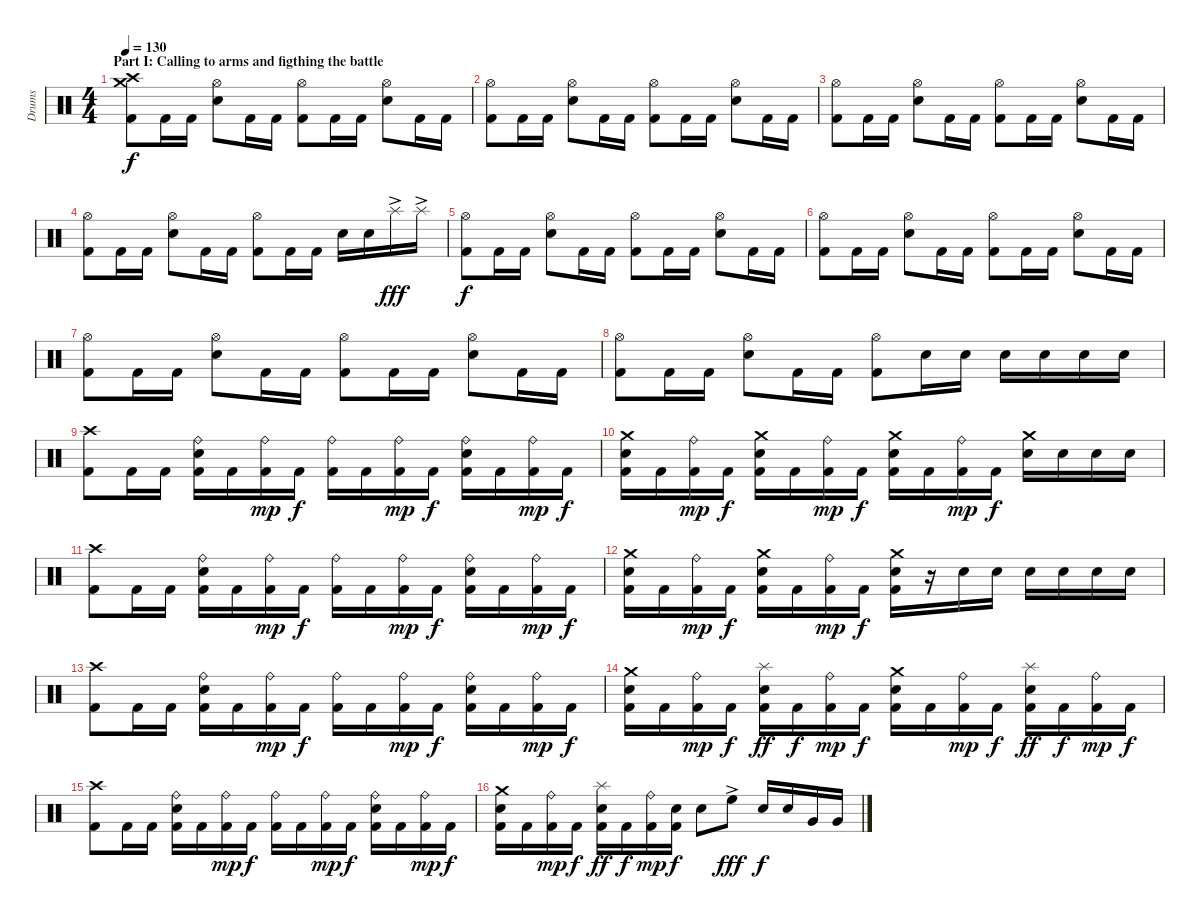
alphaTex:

\track ("Drums" "Drums") {instrument percussion}
\staff {score}
\articulation defaults
\ts (4 4)
\section ("" "Part I: Calling to arms and figthing the battle")
\tempo 130
\clef neutral
\ks c
("Crash high (hit)" "Crash medium (hit)" "Kick (hit) 2").8{dy f} "Kick (hit) 2".16 "Kick (hit) 2".16 ("Hi-Hat (open)" "Snare (hit) 2").8 "Kick (hit) 2".16 "Kick (hit) 2".16 ("Hi-Hat (open)" "Kick (hit) 2").8 "Kick (hit) 2".16 "Kick (hit) 2".16 ("Hi-Hat (open)" "Snare (hit) 2").8 "Kick (hit) 2".16 "Kick (hit) 2".16 |
("Hi-Hat (open)" "Kick (hit) 2").8 "Kick (hit) 2".16 "Kick (hit) 2".16 ("Hi-Hat (open)" "Snare (hit) 2").8 "Kick (hit) 2".16 "Kick (hit) 2".16 ("Hi-Hat (open)" "Kick (hit) 2").8 "Kick (hit) 2".16 "Kick (hit) 2".16 ("Hi-Hat (open)" "Snare (hit) 2").8 "Kick (hit) 2".16 "Kick (hit) 2".16 |
("Hi-Hat (open)" "Kick (hit) 2").8 "Kick (hit) 2".16 "Kick (hit) 2".16 ("Hi-Hat (open)" "Snare (hit) 2").8 "Kick (hit) 2".16 "Kick (hit) 2".16 ("Hi-Hat (open)" "Kick (hit) 2").8 "Kick (hit) 2".16 "Kick (hit) 2".16 ("Hi-Hat (open)" "Snare (hit) 2").8 "Kick (hit) 2".16 "Kick (hit) 2".16 |
("Hi-Hat (open)" "Kick (hit) 2").8 "Kick (hit) 2".16 "Kick (hit) 2".16 ("Hi-Hat (open)" "Snare (hit) 2").8 "Kick (hit) 2".16 "Kick (hit) 2".16 ("Hi-Hat (open)" "Kick (hit) 2").8 "Kick (hit) 2".16 "Kick (hit) 2".16 "Snare (hit) 2".16 "Snare (hit) 2".16 "Splash (hit)"{ac}.16{dy fff} "Splash (hit)"{ac}.16 |
("Hi-Hat (open)" "Kick (hit) 2").8{dy f} "Kick (hit) 2".16 "Kick (hit) 2".16 ("Hi-Hat (open)" "Snare (hit) 2").8 "Kick (hit) 2".16 "Kick (hit) 2".16 ("Hi-Hat (open)" "Kick (hit) 2").8 "Kick (hit) 2".16 "Kick (hit) 2".16 ("Hi-Hat (open)" "Snare (hit) 2").8 "Kick (hit) 2".16 "Kick (hit) 2".16 |
("Hi-Hat (open)" "Kick (hit) 2").8 "Kick (hit) 2".16 "Kick (hit) 2".16 ("Hi-Hat (open)" "Snare (hit) 2").8 "Kick (hit) 2".16 "Kick (hit) 2".16 ("Hi-Hat (open)" "Kick (hit) 2").8 "Kick (hit) 2".16 "Kick (hit) 2".16 ("Hi-Hat (open)" "Snare (hit) 2").8 "Kick (hit) 2".16 "Kick (hit) 2".16 |
("Hi-Hat (open)" "Kick (hit) 2").8 "Kick (hit) 2".16 "Kick (hit) 2".16 ("Hi-Hat (open)" "Snare (hit) 2").8 "Kick (hit) 2".16 "Kick (hit) 2".16 ("Hi-Hat (open)" "Kick (hit) 2").8 "Kick (hit) 2".16 "Kick (hit) 2".16 ("Hi-Hat (open)" "Snare (hit) 2").8 "Kick (hit) 2".16 "Kick (hit) 2".16 |
("Hi-Hat (open)" "Kick (hit) 2").8 "Kick (hit) 2".16 "Kick (hit) 2".16 ("Hi-Hat (open)" "Snare (hit) 2").8 "Kick (hit) 2".16 "Kick (hit) 2".16 ("Hi-Hat (open)" "Kick (hit) 2").8 "Snare (hit) 2".16 "Snare (hit) 2".16 "Snare (hit) 2".16 "Snare (hit) 2".16 "Snare (hit) 2".16 "Snare (hit) 2".16 |
("Crash high (hit)" "Kick (hit) 2").8 "Kick (hit) 2".16 "Kick (hit) 2".16 ("Ride (bell)" "Snare (hit) 2" "Kick (hit) 2").16 "Kick (hit) 2".16 ("Ride (bell)" "Kick (hit) 2").16{dy mp} "Kick (hit) 2".16{dy f} ("Ride (bell)" "Kick (hit) 2").16 "Kick (hit) 2".16 ("Ride (bell)" "Kick (hit) 2").16{dy mp} "Kick (hit) 2".16{dy f} ("Ride (bell)" "Snare (hit) 2" "Kick (hit) 2").16 "Kick (hit) 2".16 ("Ride (bell)" "Kick (hit) 2").16{dy mp} "Kick (hit) 2".16{dy f} |
("Crash medium (hit)" "Snare (hit) 2" "Kick (hit) 2").16 "Kick (hit) 2".16 ("Ride (bell)" "Kick (hit) 2").16{dy mp} "Kick (hit) 2".16{dy f} ("Crash medium (hit)" "Snare (hit) 2" "Kick (hit) 2").16 "Kick (hit) 2".16 ("Ride (bell)" "Kick (hit) 2").16{dy mp} "Kick (hit) 2".16{dy f} ("Crash medium (hit)" "Snare (hit) 2" "Kick (hit) 2").16 "Kick (hit) 2".16 ("Ride (bell)" "Kick (hit) 2").16{dy mp} "Kick (hit) 2".16{dy f} ("Crash medium (hit)" "Snare (hit) 2").16 "Snare (hit) 2".16 "Snare (hit) 2".16 "Snare (hit) 2".16 |
("Crash high (hit)" "Kick (hit) 2").8 "Kick (hit) 2".16 "Kick (hit) 2".16 ("Ride (bell)" "Snare (hit) 2" "Kick (hit) 2").16 "Kick (hit) 2".16 ("Ride (bell)" "Kick (hit) 2").16{dy mp} "Kick (hit) 2".16{dy f} ("Ride (bell)" "Kick (hit) 2").16 "Kick (hit) 2".16 ("Ride (bell)" "Kick (hit) 2").16{dy mp} "Kick (hit) 2".16{dy f} ("Ride (bell)" "Snare (hit) 2" "Kick (hit) 2").16 "Kick (hit) 2".16 ("Ride (bell)" "Kick (hit) 2").16{dy mp} "Kick (hit) 2".16{dy f} |
("Crash medium (hit)" "Snare (hit) 2" "Kick (hit) 2").16 "Kick (hit) 2".16 ("Ride (bell)" "Kick (hit) 2").16{dy mp} "Kick (hit) 2".16{dy f} ("Crash medium (hit)" "Snare (hit) 2" "Kick (hit) 2").16 "Kick (hit) 2".16 ("Ride (bell)" "Kick (hit) 2").16{dy mp} "Kick (hit) 2".16{dy f} ("Crash medium (hit)" "Snare (hit) 2" "Kick (hit) 2").16 r.16 "Snare (hit) 2".16 "Snare (hit) 2".16 "Snare (hit) 2".16 "Snare (hit) 2".16 "Snare (hit) 2".16 "Snare (hit) 2".16 |
("Crash high (hit)" "Kick (hit) 2").8 "Kick (hit) 2".16 "Kick (hit) 2".16 ("Ride (bell)" "Snare (hit) 2" "Kick (hit) 2").16 "Kick (hit) 2".16 ("Ride (bell)" "Kick (hit) 2").16{dy mp} "Kick (hit) 2".16{dy f} ("Ride (bell)" "Kick (hit) 2").16 "Kick (hit) 2".16 ("Ride (bell)" "Kick (hit) 2").16{dy mp} "Kick (hit) 2".16{dy f} ("Ride (bell)" "Snare (hit) 2" "Kick (hit) 2").16 "Kick (hit) 2".16 ("Ride (bell)" "Kick (hit) 2").16{dy mp} "Kick (hit) 2".16{dy f} |
("Crash medium (hit)" "Snare (hit) 2" "Kick (hit) 2").16 "Kick (hit) 2".16 ("Ride (bell)" "Kick (hit) 2").16{dy mp} "Kick (hit) 2".16{dy f} ("Splash (hit)" "Snare (hit) 2" "Kick (hit) 2").16{dy ff} "Kick (hit) 2".16{dy f} ("Ride (bell)" "Kick (hit) 2").16{dy mp} "Kick (hit) 2".16{dy f} ("Crash medium (hit)" "Snare (hit) 2" "Kick (hit) 2").16 "Kick (hit) 2".16 ("Ride (bell)" "Kick (hit) 2").16{dy mp} "Kick (hit) 2".16{dy f} ("Splash (hit)" "Snare (hit) 2" "Kick (hit) 2").16{dy ff} "Kick (hit) 2".16{dy f} ("Ride (bell)" "Kick (hit) 2").16{dy mp} "Kick (hit) 2".16{dy f} |
("Crash high (hit)" "Kick (hit) 2").8 "Kick (hit) 2".16 "Kick (hit) 2".16 ("Ride (bell)" "Snare (hit) 2" "Kick (hit) 2").16 "Kick (hit) 2".16 ("Ride (bell)" "Kick (hit) 2").16{dy mp} "Kick (hit) 2".16{dy f} ("Ride (bell)" "Kick (hit) 2").16 "Kick (hit) 2".16 ("Ride (bell)" "Kick (hit) 2").16{dy mp} "Kick (hit) 2".16{dy f} ("Ride (bell)" "Snare (hit) 2" "Kick (hit) 2").16 "Kick (hit) 2".16 ("Ride (bell)" "Kick (hit) 2").16{dy mp} "Kick (hit) 2".16{dy f} |
("Crash medium (hit)" "Snare (hit) 2" "Kick (hit) 2").16 "Kick (hit) 2".16 ("Ride (bell)" "Kick (hit) 2").16{dy mp} "Kick (hit) 2".16{dy f} ("Splash (hit)" "Snare (hit) 2" "Kick (hit) 2").16{dy ff} "Kick (hit) 2".16{dy f} ("Ride (bell)" "Kick (hit) 2").16{dy mp} ("Snare (hit) 2" "Kick (hit) 2").16{dy f} "Snare (hit) 2".8 "High Floor Tom (hit)"{ac}.8{dy fff} "Snare (hit) 2".16{dy f} "Snare (hit) 2".16 "Very Low Tom (hit)".16 "Very Low Tom (hit)".16
